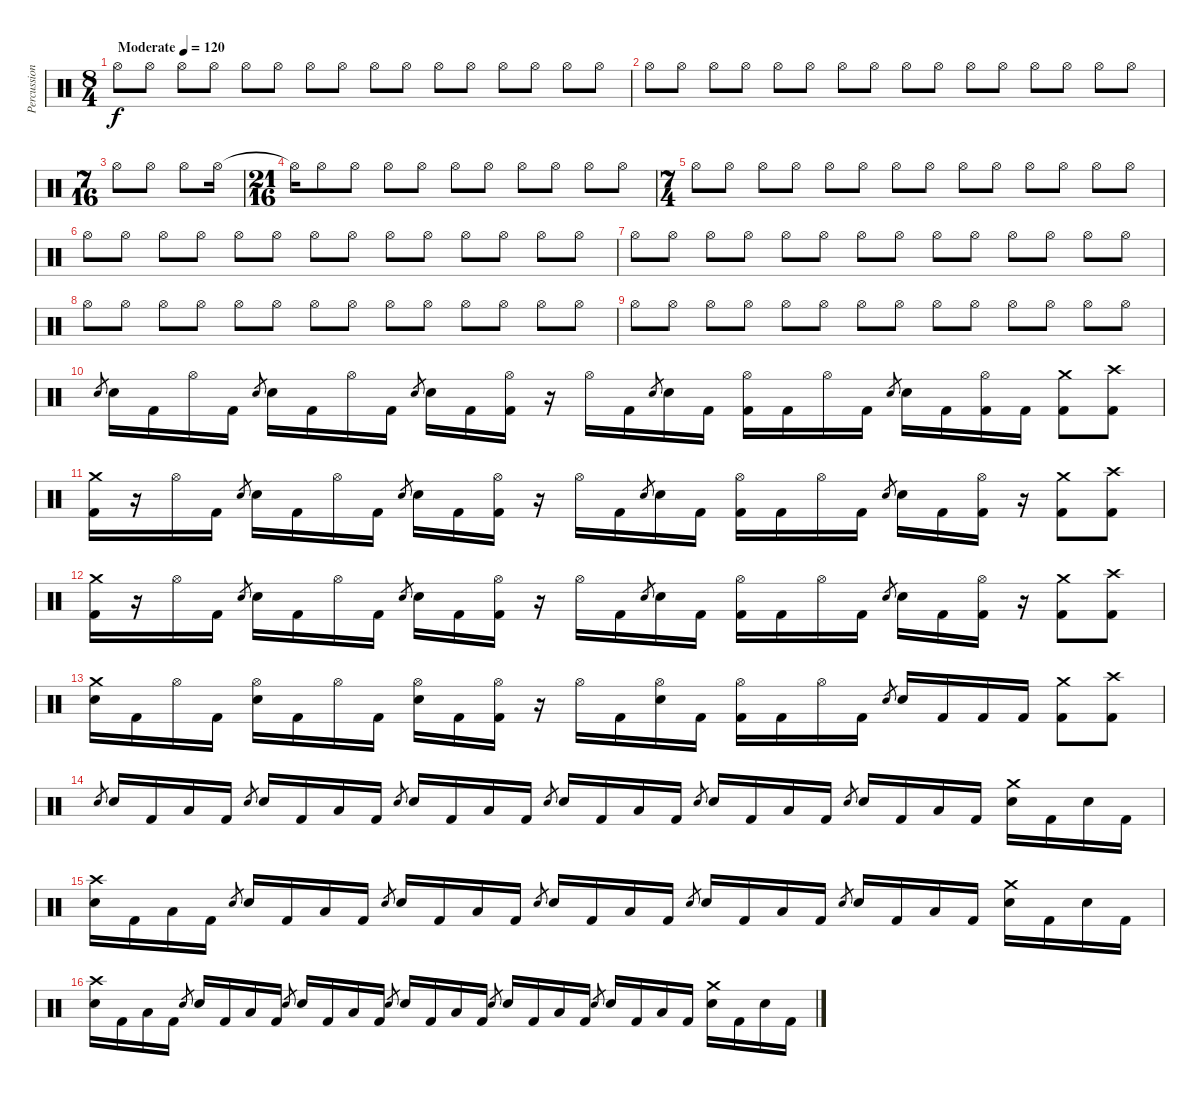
\track ("Percussion" "Percussion") {instrument percussion}
\staff {score}
\articulation defaults
\ts (8 4)
\tempo (120 "Moderate")
\clef neutral
\ks c "Hi-Hat (open)".8{dy f} "Hi-Hat (open)".8 "Hi-Hat (open)".8 "Hi-Hat (open)".8 "Hi-Hat (open)".8 "Hi-Hat (open)".8 "Hi-Hat (open)".8 "Hi-Hat (open)".8 "Hi-Hat (open)".8 "Hi-Hat (open)".8 "Hi-Hat (open)".8 "Hi-Hat (open)".8 "Hi-Hat (open)".8 "Hi-Hat (open)".8 "Hi-Hat (open)".8 "Hi-Hat (open)".8
|
"Hi-Hat (open)".8 "Hi-Hat (open)".8 "Hi-Hat (open)".8 "Hi-Hat (open)".8 "Hi-Hat (open)".8 "Hi-Hat (open)".8 "Hi-Hat (open)".8 "Hi-Hat (open)".8 "Hi-Hat (open)".8 "Hi-Hat (open)".8 "Hi-Hat (open)".8 "Hi-Hat (open)".8 "Hi-Hat (open)".8 "Hi-Hat (open)".8 "Hi-Hat (open)".8 "Hi-Hat (open)".8 |
\ts (7 16)
"Hi-Hat (open)".8 "Hi-Hat (open)".8 "Hi-Hat (open)".8 "Hi-Hat (open)".16 |
\ts (21 16)
"Hi-Hat (open)"{t}.16 "Hi-Hat (open)".8 "Hi-Hat (open)".8 "Hi-Hat (open)".8 "Hi-Hat (open)".8 "Hi-Hat (open)".8 "Hi-Hat (open)".8 "Hi-Hat (open)".8 "Hi-Hat (open)".8 "Hi-Hat (open)".8 "Hi-Hat (open)".8 |
\ts (7 4)
"Hi-Hat (open)".8 "Hi-Hat (open)".8 "Hi-Hat (open)".8 "Hi-Hat (open)".8 "Hi-Hat (open)".8 "Hi-Hat (open)".8 "Hi-Hat (open)".8 "Hi-Hat (open)".8 "Hi-Hat (open)".8 "Hi-Hat (open)".8 "Hi-Hat (open)".8 "Hi-Hat (open)".8 "Hi-Hat (open)".8 "Hi-Hat (open)".8 |
"Hi-Hat (open)".8 "Hi-Hat (open)".8 "Hi-Hat (open)".8 "Hi-Hat (open)".8 "Hi-Hat (open)".8 "Hi-Hat (open)".8 "Hi-Hat (open)".8 "Hi-Hat (open)".8 "Hi-Hat (open)".8 "Hi-Hat (open)".8 "Hi-Hat (open)".8 "Hi-Hat (open)".8 "Hi-Hat (open)".8 "Hi-Hat (open)".8 |
"Hi-Hat (open)".8 "Hi-Hat (open)".8 "Hi-Hat (open)".8 "Hi-Hat (open)".8 "Hi-Hat (open)".8 "Hi-Hat (open)".8 "Hi-Hat (open)".8 "Hi-Hat (open)".8 "Hi-Hat (open)".8 "Hi-Hat (open)".8 "Hi-Hat (open)".8 "Hi-Hat (open)".8 "Hi-Hat (open)".8 "Hi-Hat (open)".8 |
"Hi-Hat (open)".8 "Hi-Hat (open)".8 "Hi-Hat (open)".8 "Hi-Hat (open)".8 "Hi-Hat (open)".8 "Hi-Hat (open)".8 "Hi-Hat (open)".8 "Hi-Hat (open)".8 "Hi-Hat (open)".8 "Hi-Hat (open)".8 "Hi-Hat (open)".8 "Hi-Hat (open)".8 "Hi-Hat (open)".8 "Hi-Hat (open)".8 |
"Hi-Hat (open)".8 "Hi-Hat (open)".8 "Hi-Hat (open)".8 "Hi-Hat (open)".8 "Hi-Hat (open)".8 "Hi-Hat (open)".8 "Hi-Hat (open)".8 "Hi-Hat (open)".8 "Hi-Hat (open)".8 "Hi-Hat (open)".8 "Hi-Hat (open)".8 "Hi-Hat (open)".8 "Hi-Hat (open)".8 "Hi-Hat (open)".8 |
"Electric Snare (hit)".8{gr} "Electric Snare (hit)".16 "Kick (hit) 2".16 "Hi-Hat (open)".16 "Kick (hit) 2".16 "Electric Snare (hit)".8{gr} "Electric Snare (hit)".16 "Kick (hit) 2".16 "Hi-Hat (open)".16 "Kick (hit) 2".16 "Electric Snare (hit)".8{gr} "Electric Snare (hit)".16 "Kick (hit) 2".16 ("Hi-Hat (open)" "Kick (hit) 2").16 r.16 "Hi-Hat (open)".16 "Kick (hit) 2".16 "Electric Snare (hit)".8{gr} "Electric Snare (hit)".16 "Kick (hit) 2".16 ("Hi-Hat (open)" "Kick (hit) 2").16 "Kick (hit) 2".16 "Hi-Hat (open)".16 "Kick (hit) 2".16 "Electric Snare (hit)".8{gr} "Electric Snare (hit)".16 "Kick (hit) 2".16 ("Hi-Hat (open)" "Kick (hit) 2").16 "Kick (hit) 2".16 ("Crash medium (hit)" "Kick (hit) 2").8 ("Crash high (hit)" "Kick (hit) 2").8 |
("Crash medium (hit)" "Kick (hit) 2").16 r.16 "Hi-Hat (open)".16 "Kick (hit) 2".16 "Electric Snare (hit)".8{gr} "Electric Snare (hit)".16 "Kick (hit) 2".16 "Hi-Hat (open)".16 "Kick (hit) 2".16 "Electric Snare (hit)".8{gr} "Electric Snare (hit)".16 "Kick (hit) 2".16 ("Hi-Hat (open)" "Kick (hit) 2").16 r.16 "Hi-Hat (open)".16 "Kick (hit) 2".16 "Electric Snare (hit)".8{gr} "Electric Snare (hit)".16 "Kick (hit) 2".16 ("Hi-Hat (open)" "Kick (hit) 2").16 "Kick (hit) 2".16 "Hi-Hat (open)".16 "Kick (hit) 2".16 "Electric Snare (hit)".8{gr} "Electric Snare (hit)".16 "Kick (hit) 2".16 ("Hi-Hat (open)" "Kick (hit) 2").16 r.16 ("Crash medium (hit)" "Kick (hit) 2").8 ("Crash high (hit)" "Kick (hit) 2").8 |
("Crash medium (hit)" "Kick (hit) 2").16 r.16 "Hi-Hat (open)".16 "Kick (hit) 2".16 "Electric Snare (hit)".8{gr} "Electric Snare (hit)".16 "Kick (hit) 2".16 "Hi-Hat (open)".16 "Kick (hit) 2".16 "Electric Snare (hit)".8{gr} "Electric Snare (hit)".16 "Kick (hit) 2".16 ("Hi-Hat (open)" "Kick (hit) 2").16 r.16 "Hi-Hat (open)".16 "Kick (hit) 2".16 "Electric Snare (hit)".8{gr} "Electric Snare (hit)".16 "Kick (hit) 2".16 ("Hi-Hat (open)" "Kick (hit) 2").16 "Kick (hit) 2".16 "Hi-Hat (open)".16 "Kick (hit) 2".16 "Electric Snare (hit)".8{gr} "Electric Snare (hit)".16 "Kick (hit) 2".16 ("Hi-Hat (open)" "Kick (hit) 2").16 r.16 ("Crash medium (hit)" "Kick (hit) 2").8 ("Crash high (hit)" "Kick (hit) 2").8 |
("Crash medium (hit)" "Electric Snare (hit)").16 "Kick (hit) 2".16 "Hi-Hat (open)".16 "Kick (hit) 2".16 ("Hi-Hat (open)" "Electric Snare (hit)").16 "Kick (hit) 2".16 "Hi-Hat (open)".16 "Kick (hit) 2".16 ("Hi-Hat (open)" "Electric Snare (hit)").16 "Kick (hit) 2".16 ("Hi-Hat (open)" "Kick (hit) 2").16 r.16 "Hi-Hat (open)".16 "Kick (hit) 2".16 ("Hi-Hat (open)" "Electric Snare (hit)").16 "Kick (hit) 2".16 ("Hi-Hat (open)" "Kick (hit) 2").16 "Kick (hit) 2".16 "Hi-Hat (open)".16 "Kick (hit) 2".16 "Electric Snare (hit)".8{gr} "Electric Snare (hit)".16 "Kick (hit) 2".16 "Kick (hit) 2".16 "Kick (hit) 2".16 ("Crash medium (hit)" "Kick (hit) 2").8 ("Crash high (hit)" "Kick (hit) 2").8 |
"Electric Snare (hit)".8{gr} "Electric Snare (hit)".16 "Kick (hit) 2".16 "Low Floor Tom (hit)".16 "Kick (hit) 2".16 "Electric Snare (hit)".8{gr} "Electric Snare (hit)".16 "Kick (hit) 2".16 "Low Floor Tom (hit)".16 "Kick (hit) 2".16 "Electric Snare (hit)".8{gr} "Electric Snare (hit)".16 "Kick (hit) 2".16 "Low Floor Tom (hit)".16 "Kick (hit) 2".16 "Electric Snare (hit)".8{gr} "Electric Snare (hit)".16 "Kick (hit) 2".16 "Low Floor Tom (hit)".16 "Kick (hit) 2".16 "Electric Snare (hit)".8{gr} "Electric Snare (hit)".16 "Kick (hit) 2".16 "Low Floor Tom (hit)".16 "Kick (hit) 2".16 "Electric Snare (hit)".8{gr} "Electric Snare (hit)".16 "Kick (hit) 2".16 "Low Floor Tom (hit)".16 "Kick (hit) 2".16 ("Crash medium (hit)" "Electric Snare (hit)").16 "Kick (hit) 2".16 "Electric Snare (hit)".16 "Kick (hit) 2".16 |
("Crash high (hit)" "Electric Snare (hit)").16 "Kick (hit) 2".16 "Low Floor Tom (hit)".16 "Kick (hit) 2".16 "Electric Snare (hit)".8{gr} "Electric Snare (hit)".16 "Kick (hit) 2".16 "Low Floor Tom (hit)".16 "Kick (hit) 2".16 "Electric Snare (hit)".8{gr} "Electric Snare (hit)".16 "Kick (hit) 2".16 "Low Floor Tom (hit)".16 "Kick (hit) 2".16 "Electric Snare (hit)".8{gr} "Electric Snare (hit)".16 "Kick (hit) 2".16 "Low Floor Tom (hit)".16 "Kick (hit) 2".16 "Electric Snare (hit)".8{gr} "Electric Snare (hit)".16 "Kick (hit) 2".16 "Low Floor Tom (hit)".16 "Kick (hit) 2".16 "Electric Snare (hit)".8{gr} "Electric Snare (hit)".16 "Kick (hit) 2".16 "Low Floor Tom (hit)".16 "Kick (hit) 2".16 ("Crash medium (hit)" "Electric Snare (hit)").16 "Kick (hit) 2".16 "Electric Snare (hit)".16 "Kick (hit) 2".16 |
("Crash high (hit)" "Electric Snare (hit)").16 "Kick (hit) 2".16 "Low Floor Tom (hit)".16 "Kick (hit) 2".16 "Electric Snare (hit)".8{gr} "Electric Snare (hit)".16 "Kick (hit) 2".16 "Low Floor Tom (hit)".16 "Kick (hit) 2".16 "Electric Snare (hit)".8{gr} "Electric Snare (hit)".16 "Kick (hit) 2".16 "Low Floor Tom (hit)".16 "Kick (hit) 2".16 "Electric Snare (hit)".8{gr} "Electric Snare (hit)".16 "Kick (hit) 2".16 "Low Floor Tom (hit)".16 "Kick (hit) 2".16 "Electric Snare (hit)".8{gr} "Electric Snare (hit)".16 "Kick (hit) 2".16 "Low Floor Tom (hit)".16 "Kick (hit) 2".16 "Electric Snare (hit)".8{gr} "Electric Snare (hit)".16 "Kick (hit) 2".16 "Low Floor Tom (hit)".16 "Kick (hit) 2".16 ("Crash medium (hit)" "Electric Snare (hit)").16 "Kick (hit) 2".16 "Electric Snare (hit)".16 "Kick (hit) 2".16
